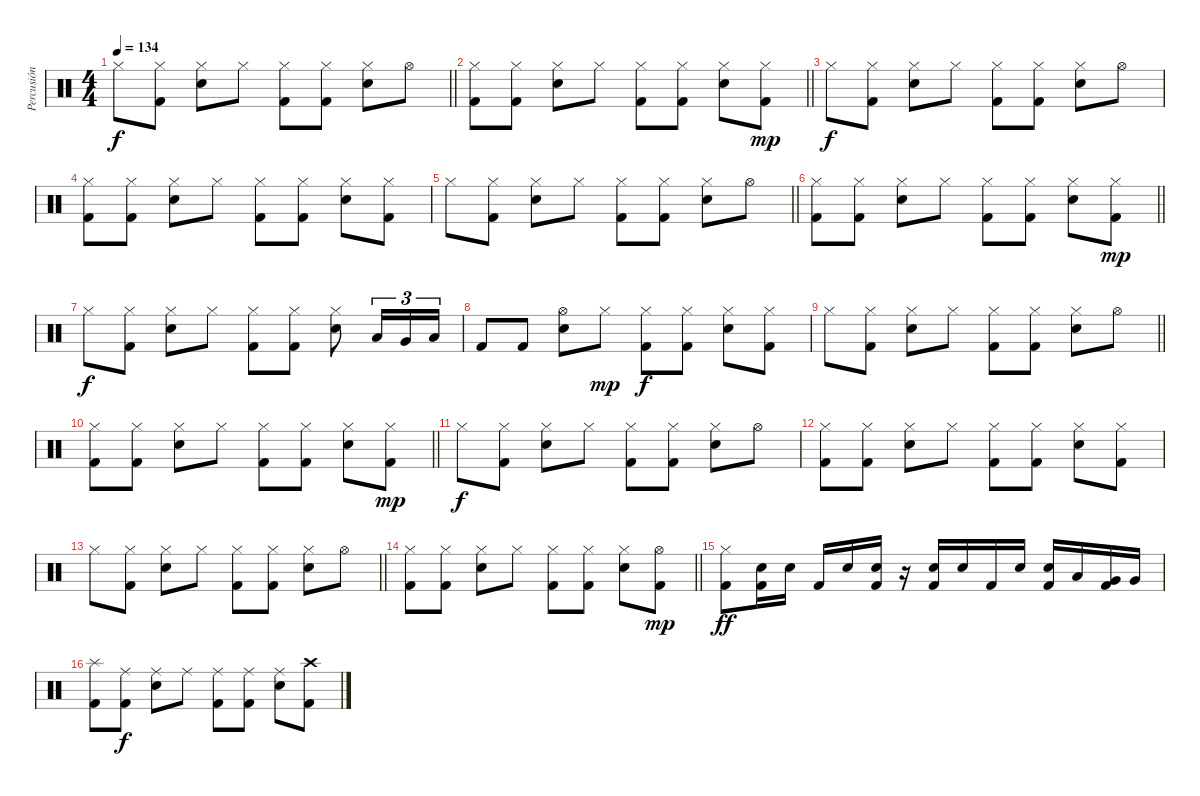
\track ("Percusión" "Percusión") {instrument percussion}
\staff {score}
\articulation defaults
\ts (4 4)
\tempo 134
\clef neutral
\barLineRight lightlight
\ks c "Hi-Hat (closed)".8{dy f}
("Hi-Hat (closed)" "Kick (hit) 2").8 ("Hi-Hat (closed)" "Electric Snare (hit)").8 "Hi-Hat (closed)".8 ("Hi-Hat (closed)" "Kick (hit) 2").8 ("Hi-Hat (closed)" "Kick (hit) 2").8 ("Hi-Hat (closed)" "Electric Snare (hit)").8 "Hi-Hat (open)".8 |
\barLineRight lightlight
("Hi-Hat (closed)" "Kick (hit) 2").8 ("Hi-Hat (closed)" "Kick (hit) 2").8 ("Hi-Hat (closed)" "Electric Snare (hit)").8 "Hi-Hat (closed)".8 ("Hi-Hat (closed)" "Kick (hit) 2").8 ("Hi-Hat (closed)" "Kick (hit) 2").8 ("Hi-Hat (closed)" "Electric Snare (hit)").8 ("Hi-Hat (closed)" "Kick (hit) 2").8{dy mp} |
"Hi-Hat (closed)".8{dy f} ("Hi-Hat (closed)" "Kick (hit) 2").8 ("Hi-Hat (closed)" "Electric Snare (hit)").8 "Hi-Hat (closed)".8 ("Hi-Hat (closed)" "Kick (hit) 2").8 ("Hi-Hat (closed)" "Kick (hit) 2").8 ("Hi-Hat (closed)" "Electric Snare (hit)").8 "Hi-Hat (open)".8 |
("Hi-Hat (closed)" "Kick (hit) 2").8 ("Hi-Hat (closed)" "Kick (hit) 2").8 ("Hi-Hat (closed)" "Electric Snare (hit)").8 "Hi-Hat (closed)".8 ("Hi-Hat (closed)" "Kick (hit) 2").8 ("Hi-Hat (closed)" "Kick (hit) 2").8 ("Hi-Hat (closed)" "Electric Snare (hit)").8 ("Hi-Hat (closed)" "Kick (hit) 2").8 |
\barLineRight lightlight "Hi-Hat (closed)".8
("Hi-Hat (closed)" "Kick (hit) 2").8 ("Hi-Hat (closed)" "Electric Snare (hit)").8 "Hi-Hat (closed)".8 ("Hi-Hat (closed)" "Kick (hit) 2").8 ("Hi-Hat (closed)" "Kick (hit) 2").8 ("Hi-Hat (closed)" "Electric Snare (hit)").8 "Hi-Hat (open)".8 |
\barLineRight lightlight
("Hi-Hat (closed)" "Kick (hit) 2").8 ("Hi-Hat (closed)" "Kick (hit) 2").8 ("Hi-Hat (closed)" "Electric Snare (hit)").8 "Hi-Hat (closed)".8 ("Hi-Hat (closed)" "Kick (hit) 2").8 ("Hi-Hat (closed)" "Kick (hit) 2").8 ("Hi-Hat (closed)" "Electric Snare (hit)").8 ("Hi-Hat (closed)" "Kick (hit) 2").8{dy mp} |
"Hi-Hat (closed)".8{dy f} ("Hi-Hat (closed)" "Kick (hit) 2").8 ("Hi-Hat (closed)" "Electric Snare (hit)").8 "Hi-Hat (closed)".8 ("Hi-Hat (closed)" "Kick (hit) 2").8 ("Hi-Hat (closed)" "Kick (hit) 2").8 ("Hi-Hat (closed)" "Electric Snare (hit)").8 "Low Tom (hit)".16{tu (3 2)} "Very Low Tom (hit)".16{tu (3 2)} "Low Floor Tom (hit)".16{tu (3 2)} |
"Kick (hit) 2".8 "Kick (hit) 2".8 ("Hi-Hat (open)" "Electric Snare (hit)").8 "Hi-Hat (closed)".8{dy mp} ("Hi-Hat (closed)" "Kick (hit) 2").8{dy f} ("Hi-Hat (closed)" "Kick (hit) 2").8 ("Hi-Hat (closed)" "Electric Snare (hit)").8 ("Hi-Hat (closed)" "Kick (hit) 2").8 |
\barLineRight lightlight "Hi-Hat (closed)".8
("Hi-Hat (closed)" "Kick (hit) 2").8 ("Hi-Hat (closed)" "Electric Snare (hit)").8 "Hi-Hat (closed)".8 ("Hi-Hat (closed)" "Kick (hit) 2").8 ("Hi-Hat (closed)" "Kick (hit) 2").8 ("Hi-Hat (closed)" "Electric Snare (hit)").8 "Hi-Hat (open)".8 |
\barLineRight lightlight
("Hi-Hat (closed)" "Kick (hit) 2").8 ("Hi-Hat (closed)" "Kick (hit) 2").8 ("Hi-Hat (closed)" "Electric Snare (hit)").8 "Hi-Hat (closed)".8 ("Hi-Hat (closed)" "Kick (hit) 2").8 ("Hi-Hat (closed)" "Kick (hit) 2").8 ("Hi-Hat (closed)" "Electric Snare (hit)").8 ("Hi-Hat (closed)" "Kick (hit) 2").8{dy mp} |
"Hi-Hat (closed)".8{dy f} ("Hi-Hat (closed)" "Kick (hit) 2").8 ("Hi-Hat (closed)" "Electric Snare (hit)").8 "Hi-Hat (closed)".8 ("Hi-Hat (closed)" "Kick (hit) 2").8 ("Hi-Hat (closed)" "Kick (hit) 2").8 ("Hi-Hat (closed)" "Electric Snare (hit)").8 "Hi-Hat (open)".8 |
("Hi-Hat (closed)" "Kick (hit) 2").8 ("Hi-Hat (closed)" "Kick (hit) 2").8 ("Hi-Hat (closed)" "Electric Snare (hit)").8 "Hi-Hat (closed)".8 ("Hi-Hat (closed)" "Kick (hit) 2").8 ("Hi-Hat (closed)" "Kick (hit) 2").8 ("Hi-Hat (closed)" "Electric Snare (hit)").8 ("Hi-Hat (closed)" "Kick (hit) 2").8 |
\barLineRight lightlight "Hi-Hat (closed)".8
("Hi-Hat (closed)" "Kick (hit) 2").8 ("Hi-Hat (closed)" "Electric Snare (hit)").8 "Hi-Hat (closed)".8 ("Hi-Hat (closed)" "Kick (hit) 2").8 ("Hi-Hat (closed)" "Kick (hit) 2").8 ("Hi-Hat (closed)" "Electric Snare (hit)").8 "Hi-Hat (open)".8 |
\barLineRight lightlight
("Hi-Hat (closed)" "Kick (hit) 2").8 ("Hi-Hat (closed)" "Kick (hit) 2").8 ("Hi-Hat (closed)" "Electric Snare (hit)").8 "Hi-Hat (closed)".8 ("Hi-Hat (closed)" "Kick (hit) 2").8 ("Hi-Hat (closed)" "Kick (hit) 2").8 ("Hi-Hat (closed)" "Electric Snare (hit)").8 ("Hi-Hat (open)" "Kick (hit) 2").8{dy mp} |
("Hi-Hat (closed)" "Kick (hit) 2").8{dy ff} ("Electric Snare (hit)" "Kick (hit) 2").16 "Electric Snare (hit)".16 "Kick (hit) 2".16 "Electric Snare (hit)".16 ("Electric Snare (hit)" "Kick (hit) 2").16 r.16 ("Electric Snare (hit)" "Kick (hit) 2").16 "Electric Snare (hit)".16 "Kick (hit) 2".16 "Electric Snare (hit)".16 ("Electric Snare (hit)" "Kick (hit) 2").16 "Low Tom (hit)".16 ("Very Low Tom (hit)" "Kick (hit) 2").16 "Very Low Tom (hit)".16 |
("Splash (hit)" "Kick (hit) 2").8 ("Ride (middle)" "Kick (hit) 2").8{dy f} ("Ride (middle)" "Electric Snare (hit)").8 "Ride (middle)".8 ("Ride (middle)" "Kick (hit) 2").8 ("Ride (middle)" "Kick (hit) 2").8 ("Ride (middle)" "Electric Snare (hit)").8 ("Crash high (hit)" "Kick (hit) 2").8
